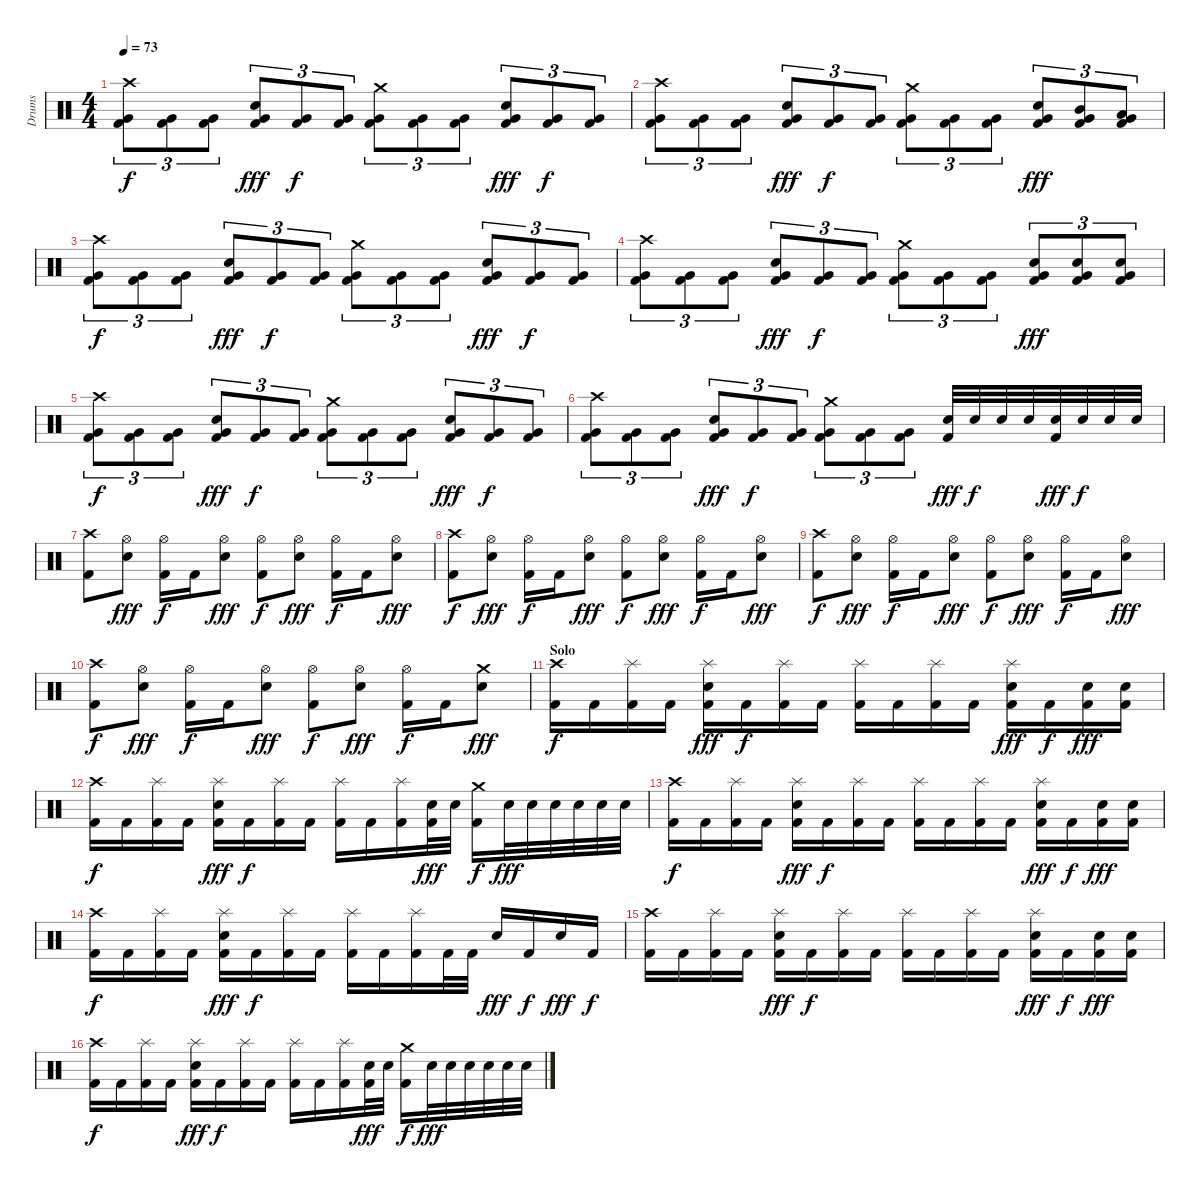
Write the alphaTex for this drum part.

\track ("Drums" "Drums") {instrument percussion}
\staff {score}
\articulation defaults
\ts (4 4)
\tempo 73
\clef neutral
\ks c
("Crash high (hit)" "Very Low Tom (hit)" "Kick (hit) 2").8{tu (3 2) dy f} ("Very Low Tom (hit)" "Kick (hit) 2").8{tu (3 2)} ("Very Low Tom (hit)" "Kick (hit) 2").8{tu (3 2)} ("Snare (hit) 2" "Very Low Tom (hit)" "Kick (hit) 2").8{tu (3 2) dy fff} ("Very Low Tom (hit)" "Kick (hit) 2").8{tu (3 2) dy f} ("Very Low Tom (hit)" "Kick (hit) 2").8{tu (3 2)} ("Crash medium (hit)" "Very Low Tom (hit)" "Kick (hit) 2").8{tu (3 2)} ("Very Low Tom (hit)" "Kick (hit) 2").8{tu (3 2)} ("Very Low Tom (hit)" "Kick (hit) 2").8{tu (3 2)} ("Snare (hit) 2" "Very Low Tom (hit)" "Kick (hit) 2").8{tu (3 2) dy fff} ("Very Low Tom (hit)" "Kick (hit) 2").8{tu (3 2) dy f} ("Very Low Tom (hit)" "Kick (hit) 2").8{tu (3 2)} |
("Crash high (hit)" "Very Low Tom (hit)" "Kick (hit) 2").8{tu (3 2)} ("Very Low Tom (hit)" "Kick (hit) 2").8{tu (3 2)} ("Very Low Tom (hit)" "Kick (hit) 2").8{tu (3 2)} ("Snare (hit) 2" "Very Low Tom (hit)" "Kick (hit) 2").8{tu (3 2) dy fff} ("Very Low Tom (hit)" "Kick (hit) 2").8{tu (3 2) dy f} ("Very Low Tom (hit)" "Kick (hit) 2").8{tu (3 2)} ("Crash medium (hit)" "Very Low Tom (hit)" "Kick (hit) 2").8{tu (3 2)} ("Very Low Tom (hit)" "Kick (hit) 2").8{tu (3 2)} ("Very Low Tom (hit)" "Kick (hit) 2").8{tu (3 2)} ("Snare (hit) 2" "Very Low Tom (hit)" "Kick (hit) 2").8{tu (3 2) dy fff} ("Mid Tom (hit)" "Very Low Tom (hit)" "Kick (hit) 2").8{tu (3 2)} ("Low Tom (hit)" "Very Low Tom (hit)" "Kick (hit) 2").8{tu (3 2)} |
("Crash high (hit)" "Very Low Tom (hit)" "Kick (hit) 2").8{tu (3 2) dy f} ("Very Low Tom (hit)" "Kick (hit) 2").8{tu (3 2)} ("Very Low Tom (hit)" "Kick (hit) 2").8{tu (3 2)} ("Snare (hit) 2" "Very Low Tom (hit)" "Kick (hit) 2").8{tu (3 2) dy fff} ("Very Low Tom (hit)" "Kick (hit) 2").8{tu (3 2) dy f} ("Very Low Tom (hit)" "Kick (hit) 2").8{tu (3 2)} ("Crash medium (hit)" "Very Low Tom (hit)" "Kick (hit) 2").8{tu (3 2)} ("Very Low Tom (hit)" "Kick (hit) 2").8{tu (3 2)} ("Very Low Tom (hit)" "Kick (hit) 2").8{tu (3 2)} ("Snare (hit) 2" "Very Low Tom (hit)" "Kick (hit) 2").8{tu (3 2) dy fff} ("Very Low Tom (hit)" "Kick (hit) 2").8{tu (3 2) dy f} ("Very Low Tom (hit)" "Kick (hit) 2").8{tu (3 2)} |
("Crash high (hit)" "Very Low Tom (hit)" "Kick (hit) 2").8{tu (3 2)} ("Very Low Tom (hit)" "Kick (hit) 2").8{tu (3 2)} ("Very Low Tom (hit)" "Kick (hit) 2").8{tu (3 2)} ("Snare (hit) 2" "Very Low Tom (hit)" "Kick (hit) 2").8{tu (3 2) dy fff} ("Very Low Tom (hit)" "Kick (hit) 2").8{tu (3 2) dy f} ("Very Low Tom (hit)" "Kick (hit) 2").8{tu (3 2)} ("Crash medium (hit)" "Very Low Tom (hit)" "Kick (hit) 2").8{tu (3 2)} ("Very Low Tom (hit)" "Kick (hit) 2").8{tu (3 2)} ("Very Low Tom (hit)" "Kick (hit) 2").8{tu (3 2)} ("Snare (hit) 2" "Very Low Tom (hit)" "Kick (hit) 2").8{tu (3 2) dy fff} ("Snare (hit) 2" "Very Low Tom (hit)" "Kick (hit) 2").8{tu (3 2)} ("Snare (hit) 2" "Very Low Tom (hit)" "Kick (hit) 2").8{tu (3 2)} |
("Crash high (hit)" "Very Low Tom (hit)" "Kick (hit) 2").8{tu (3 2) dy f} ("Very Low Tom (hit)" "Kick (hit) 2").8{tu (3 2)} ("Very Low Tom (hit)" "Kick (hit) 2").8{tu (3 2)} ("Snare (hit) 2" "Very Low Tom (hit)" "Kick (hit) 2").8{tu (3 2) dy fff} ("Very Low Tom (hit)" "Kick (hit) 2").8{tu (3 2) dy f} ("Very Low Tom (hit)" "Kick (hit) 2").8{tu (3 2)} ("Crash medium (hit)" "Very Low Tom (hit)" "Kick (hit) 2").8{tu (3 2)} ("Very Low Tom (hit)" "Kick (hit) 2").8{tu (3 2)} ("Very Low Tom (hit)" "Kick (hit) 2").8{tu (3 2)} ("Snare (hit) 2" "Very Low Tom (hit)" "Kick (hit) 2").8{tu (3 2) dy fff} ("Very Low Tom (hit)" "Kick (hit) 2").8{tu (3 2) dy f} ("Very Low Tom (hit)" "Kick (hit) 2").8{tu (3 2)} |
("Crash high (hit)" "Very Low Tom (hit)" "Kick (hit) 2").8{tu (3 2)} ("Very Low Tom (hit)" "Kick (hit) 2").8{tu (3 2)} ("Very Low Tom (hit)" "Kick (hit) 2").8{tu (3 2)} ("Snare (hit) 2" "Very Low Tom (hit)" "Kick (hit) 2").8{tu (3 2) dy fff} ("Very Low Tom (hit)" "Kick (hit) 2").8{tu (3 2) dy f} ("Very Low Tom (hit)" "Kick (hit) 2").8{tu (3 2)} ("Crash medium (hit)" "Very Low Tom (hit)" "Kick (hit) 2").8{tu (3 2)} ("Very Low Tom (hit)" "Kick (hit) 2").8{tu (3 2)} ("Very Low Tom (hit)" "Kick (hit) 2").8{tu (3 2)} ("Snare (hit) 2" "Kick (hit) 2").32{dy fff} "Snare (hit) 2".32{dy f} "Snare (hit) 2".32 "Snare (hit) 2".32 ("Snare (hit) 2" "Kick (hit) 2").32{dy fff} "Snare (hit) 2".32{dy f} "Snare (hit) 2".32 "Snare (hit) 2".32 |
("Crash high (hit)" "Kick (hit) 2").8 ("Hi-Hat (open)" "Snare (hit) 2").8{dy fff} ("Hi-Hat (open)" "Kick (hit) 2").16{dy f} "Kick (hit) 2".16 ("Hi-Hat (open)" "Snare (hit) 2").8{dy fff} ("Hi-Hat (open)" "Kick (hit) 2").8{dy f} ("Hi-Hat (open)" "Snare (hit) 2").8{dy fff} ("Hi-Hat (open)" "Kick (hit) 2").16{dy f} "Kick (hit) 2".16 ("Hi-Hat (open)" "Snare (hit) 2").8{dy fff} |
("Crash high (hit)" "Kick (hit) 2").8{dy f} ("Hi-Hat (open)" "Snare (hit) 2").8{dy fff} ("Hi-Hat (open)" "Kick (hit) 2").16{dy f} "Kick (hit) 2".16 ("Hi-Hat (open)" "Snare (hit) 2").8{dy fff} ("Hi-Hat (open)" "Kick (hit) 2").8{dy f} ("Hi-Hat (open)" "Snare (hit) 2").8{dy fff} ("Hi-Hat (open)" "Kick (hit) 2").16{dy f} "Kick (hit) 2".16 ("Hi-Hat (open)" "Snare (hit) 2").8{dy fff} |
("Crash high (hit)" "Kick (hit) 2").8{dy f} ("Hi-Hat (open)" "Snare (hit) 2").8{dy fff} ("Hi-Hat (open)" "Kick (hit) 2").16{dy f} "Kick (hit) 2".16 ("Hi-Hat (open)" "Snare (hit) 2").8{dy fff} ("Hi-Hat (open)" "Kick (hit) 2").8{dy f} ("Hi-Hat (open)" "Snare (hit) 2").8{dy fff} ("Hi-Hat (open)" "Kick (hit) 2").16{dy f} "Kick (hit) 2".16 ("Hi-Hat (open)" "Snare (hit) 2").8{dy fff} |
("Crash high (hit)" "Kick (hit) 2").8{dy f} ("Hi-Hat (open)" "Snare (hit) 2").8{dy fff} ("Hi-Hat (open)" "Kick (hit) 2").16{dy f} "Kick (hit) 2".16 ("Hi-Hat (open)" "Snare (hit) 2").8{dy fff} ("Hi-Hat (open)" "Kick (hit) 2").8{dy f} ("Hi-Hat (open)" "Snare (hit) 2").8{dy fff} ("Hi-Hat (open)" "Kick (hit) 2").16{dy f} "Kick (hit) 2".16 ("Crash medium (hit)" "Snare (hit) 2").8{dy fff} |
\section ("" "Solo")
("Crash high (hit)" "Kick (hit) 2").16{dy f} "Kick (hit) 2".16 ("Splash (hit)" "Kick (hit) 2").16 "Kick (hit) 2".16 ("Splash (hit)" "Snare (hit) 2" "Kick (hit) 2").16{dy fff} "Kick (hit) 2".16{dy f} ("Splash (hit)" "Kick (hit) 2").16 "Kick (hit) 2".16 ("Splash (hit)" "Kick (hit) 2").16 "Kick (hit) 2".16 ("Splash (hit)" "Kick (hit) 2").16 "Kick (hit) 2".16 ("Splash (hit)" "Snare (hit) 2" "Kick (hit) 2").16{dy fff} "Kick (hit) 2".16{dy f} ("Snare (hit) 2" "Kick (hit) 2").16{dy fff} ("Snare (hit) 2" "Kick (hit) 2").16 |
("Crash high (hit)" "Kick (hit) 2").16{dy f} "Kick (hit) 2".16 ("Splash (hit)" "Kick (hit) 2").16 "Kick (hit) 2".16 ("Splash (hit)" "Snare (hit) 2" "Kick (hit) 2").16{dy fff} "Kick (hit) 2".16{dy f} ("Splash (hit)" "Kick (hit) 2").16 "Kick (hit) 2".16 ("Splash (hit)" "Kick (hit) 2").16 "Kick (hit) 2".16 ("Splash (hit)" "Kick (hit) 2").16 ("Snare (hit) 2" "Kick (hit) 2").32{dy fff} "Snare (hit) 2".32 ("Crash medium (hit)" "Kick (hit) 2").16{dy f} "Snare (hit) 2".32{dy fff} "Snare (hit) 2".32 "Snare (hit) 2".32 "Snare (hit) 2".32 "Snare (hit) 2".32 "Snare (hit) 2".32 |
("Crash high (hit)" "Kick (hit) 2").16{dy f} "Kick (hit) 2".16 ("Splash (hit)" "Kick (hit) 2").16 "Kick (hit) 2".16 ("Splash (hit)" "Snare (hit) 2" "Kick (hit) 2").16{dy fff} "Kick (hit) 2".16{dy f} ("Splash (hit)" "Kick (hit) 2").16 "Kick (hit) 2".16 ("Splash (hit)" "Kick (hit) 2").16 "Kick (hit) 2".16 ("Splash (hit)" "Kick (hit) 2").16 "Kick (hit) 2".16 ("Splash (hit)" "Snare (hit) 2" "Kick (hit) 2").16{dy fff} "Kick (hit) 2".16{dy f} ("Snare (hit) 2" "Kick (hit) 2").16{dy fff} ("Snare (hit) 2" "Kick (hit) 2").16 |
("Crash high (hit)" "Kick (hit) 2").16{dy f} "Kick (hit) 2".16 ("Splash (hit)" "Kick (hit) 2").16 "Kick (hit) 2".16 ("Splash (hit)" "Snare (hit) 2" "Kick (hit) 2").16{dy fff} "Kick (hit) 2".16{dy f} ("Splash (hit)" "Kick (hit) 2").16 "Kick (hit) 2".16 ("Splash (hit)" "Kick (hit) 2").16 "Kick (hit) 2".16 ("Splash (hit)" "Kick (hit) 2").16 "Kick (hit) 2".32 "Kick (hit) 2".32 "Snare (hit) 2".16{dy fff} "Kick (hit) 2".16{dy f} "Snare (hit) 2".16{dy fff} "Kick (hit) 2".16{dy f} |
("Crash high (hit)" "Kick (hit) 2").16 "Kick (hit) 2".16 ("Splash (hit)" "Kick (hit) 2").16 "Kick (hit) 2".16 ("Splash (hit)" "Snare (hit) 2" "Kick (hit) 2").16{dy fff} "Kick (hit) 2".16{dy f} ("Splash (hit)" "Kick (hit) 2").16 "Kick (hit) 2".16 ("Splash (hit)" "Kick (hit) 2").16 "Kick (hit) 2".16 ("Splash (hit)" "Kick (hit) 2").16 "Kick (hit) 2".16 ("Splash (hit)" "Snare (hit) 2" "Kick (hit) 2").16{dy fff} "Kick (hit) 2".16{dy f} ("Snare (hit) 2" "Kick (hit) 2").16{dy fff} ("Snare (hit) 2" "Kick (hit) 2").16 |
("Crash high (hit)" "Kick (hit) 2").16{dy f} "Kick (hit) 2".16 ("Splash (hit)" "Kick (hit) 2").16 "Kick (hit) 2".16 ("Splash (hit)" "Snare (hit) 2" "Kick (hit) 2").16{dy fff} "Kick (hit) 2".16{dy f} ("Splash (hit)" "Kick (hit) 2").16 "Kick (hit) 2".16 ("Splash (hit)" "Kick (hit) 2").16 "Kick (hit) 2".16 ("Splash (hit)" "Kick (hit) 2").16 ("Snare (hit) 2" "Kick (hit) 2").32{dy fff} "Snare (hit) 2".32 ("Crash medium (hit)" "Kick (hit) 2").16{dy f} "Snare (hit) 2".32{dy fff} "Snare (hit) 2".32 "Snare (hit) 2".32 "Snare (hit) 2".32 "Snare (hit) 2".32 "Snare (hit) 2".32
